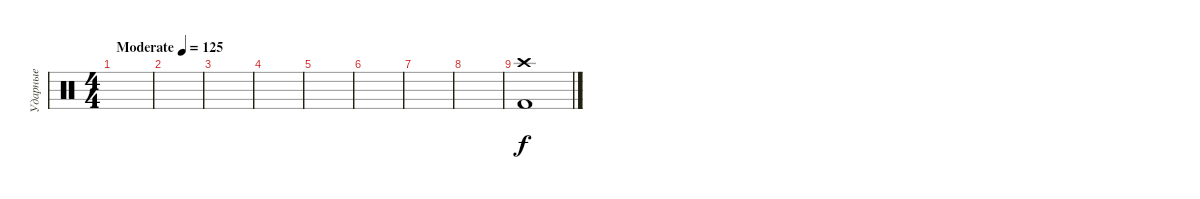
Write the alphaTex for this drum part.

\track ("Ударные" "Ударные") {instrument percussion}
\staff {score}
\articulation defaults
\ts (4 4)
\tempo (125 "Moderate")
\clef neutral
\ks c
|
|
|
|
|
|
|
|
("Crash high (hit)" "Kick (hit) 2").1
